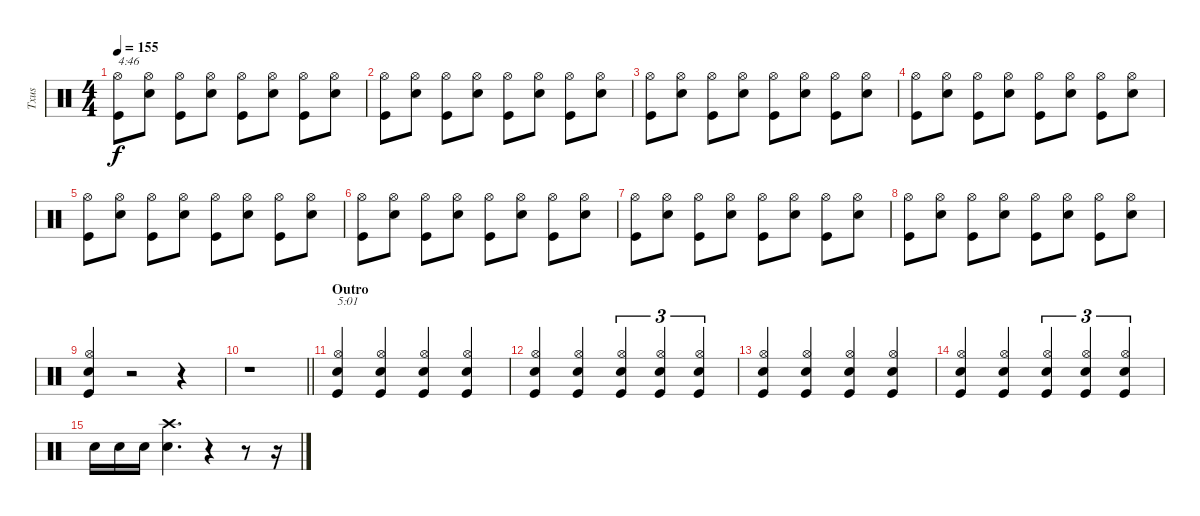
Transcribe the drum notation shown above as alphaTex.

\track ("Txus" "Txus") {instrument percussion}
\staff {score}
\articulation defaults
\ts (4 4)
\tempo 155
\clef neutral
\ks c
("Kick (hit)" "Hi-Hat (open)").8{txt "4:46" dy f} ("Snare (hit) 2" "Hi-Hat (open)").8 ("Kick (hit)" "Hi-Hat (open)").8 ("Snare (hit) 2" "Hi-Hat (open)").8 ("Kick (hit)" "Hi-Hat (open)").8 ("Snare (hit) 2" "Hi-Hat (open)").8 ("Kick (hit)" "Hi-Hat (open)").8 ("Snare (hit) 2" "Hi-Hat (open)").8 |
("Kick (hit)" "Hi-Hat (open)").8 ("Snare (hit) 2" "Hi-Hat (open)").8 ("Kick (hit)" "Hi-Hat (open)").8 ("Snare (hit) 2" "Hi-Hat (open)").8 ("Kick (hit)" "Hi-Hat (open)").8 ("Snare (hit) 2" "Hi-Hat (open)").8 ("Kick (hit)" "Hi-Hat (open)").8 ("Snare (hit) 2" "Hi-Hat (open)").8 |
("Kick (hit)" "Hi-Hat (open)").8 ("Snare (hit) 2" "Hi-Hat (open)").8 ("Kick (hit)" "Hi-Hat (open)").8 ("Snare (hit) 2" "Hi-Hat (open)").8 ("Kick (hit)" "Hi-Hat (open)").8 ("Snare (hit) 2" "Hi-Hat (open)").8 ("Kick (hit)" "Hi-Hat (open)").8 ("Snare (hit) 2" "Hi-Hat (open)").8 |
("Kick (hit)" "Hi-Hat (open)").8 ("Snare (hit) 2" "Hi-Hat (open)").8 ("Kick (hit)" "Hi-Hat (open)").8 ("Snare (hit) 2" "Hi-Hat (open)").8 ("Kick (hit)" "Hi-Hat (open)").8 ("Snare (hit) 2" "Hi-Hat (open)").8 ("Kick (hit)" "Hi-Hat (open)").8 ("Snare (hit) 2" "Hi-Hat (open)").8 |
("Kick (hit)" "Hi-Hat (open)").8 ("Snare (hit) 2" "Hi-Hat (open)").8 ("Kick (hit)" "Hi-Hat (open)").8 ("Snare (hit) 2" "Hi-Hat (open)").8 ("Kick (hit)" "Hi-Hat (open)").8 ("Snare (hit) 2" "Hi-Hat (open)").8 ("Kick (hit)" "Hi-Hat (open)").8 ("Snare (hit) 2" "Hi-Hat (open)").8 |
("Kick (hit)" "Hi-Hat (open)").8 ("Snare (hit) 2" "Hi-Hat (open)").8 ("Kick (hit)" "Hi-Hat (open)").8 ("Snare (hit) 2" "Hi-Hat (open)").8 ("Kick (hit)" "Hi-Hat (open)").8 ("Snare (hit) 2" "Hi-Hat (open)").8 ("Kick (hit)" "Hi-Hat (open)").8 ("Snare (hit) 2" "Hi-Hat (open)").8 |
("Kick (hit)" "Hi-Hat (open)").8 ("Snare (hit) 2" "Hi-Hat (open)").8 ("Kick (hit)" "Hi-Hat (open)").8 ("Snare (hit) 2" "Hi-Hat (open)").8 ("Kick (hit)" "Hi-Hat (open)").8 ("Snare (hit) 2" "Hi-Hat (open)").8 ("Kick (hit)" "Hi-Hat (open)").8 ("Snare (hit) 2" "Hi-Hat (open)").8 |
("Kick (hit)" "Hi-Hat (open)").8 ("Snare (hit) 2" "Hi-Hat (open)").8 ("Kick (hit)" "Hi-Hat (open)").8 ("Snare (hit) 2" "Hi-Hat (open)").8 ("Kick (hit)" "Hi-Hat (open)").8 ("Snare (hit) 2" "Hi-Hat (open)").8 ("Kick (hit)" "Hi-Hat (open)").8 ("Snare (hit) 2" "Hi-Hat (open)").8 |
("Kick (hit)" "Snare (hit) 2" "Hi-Hat (open)").4 r.2 r.4 |
\barLineRight lightlight
r.1 |
\section ("" "Outro")
("Kick (hit)" "Snare (hit) 2" "Hi-Hat (open)").4{txt "5:01"} ("Kick (hit)" "Snare (hit) 2" "Hi-Hat (open)").4 ("Kick (hit)" "Snare (hit) 2" "Hi-Hat (open)").4 ("Kick (hit)" "Snare (hit) 2" "Hi-Hat (open)").4 |
("Kick (hit)" "Snare (hit) 2" "Hi-Hat (open)").4 ("Kick (hit)" "Snare (hit) 2" "Hi-Hat (open)").4 ("Kick (hit)" "Snare (hit) 2" "Hi-Hat (open)").4{tu (3 2)} ("Kick (hit)" "Snare (hit) 2" "Hi-Hat (open)").4{tu (3 2)} ("Kick (hit)" "Snare (hit) 2" "Hi-Hat (open)").4{tu (3 2)} |
("Kick (hit)" "Snare (hit) 2" "Hi-Hat (open)").4 ("Kick (hit)" "Snare (hit) 2" "Hi-Hat (open)").4 ("Kick (hit)" "Snare (hit) 2" "Hi-Hat (open)").4 ("Kick (hit)" "Snare (hit) 2" "Hi-Hat (open)").4 |
("Kick (hit)" "Snare (hit) 2" "Hi-Hat (open)").4 ("Kick (hit)" "Snare (hit) 2" "Hi-Hat (open)").4 ("Kick (hit)" "Snare (hit) 2" "Hi-Hat (open)").4{tu (3 2)} ("Kick (hit)" "Snare (hit) 2" "Hi-Hat (open)").4{tu (3 2)} ("Kick (hit)" "Snare (hit) 2" "Hi-Hat (open)").4{tu (3 2)} |
"Snare (hit) 2".16 "Snare (hit) 2".16 "Snare (hit) 2".16 ("Snare (hit) 2" "Crash high (hit)").4{d} r.4 r.8 r.16
